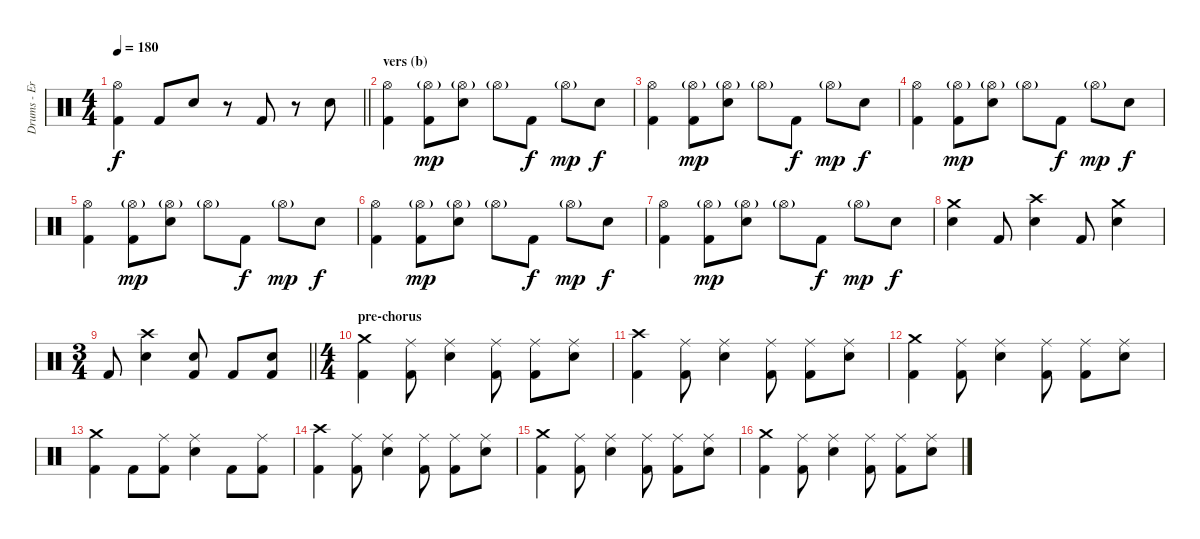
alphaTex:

\track ("Drums - Eric Young" "Drums - Er") {instrument percussion}
\staff {score}
\articulation defaults
\ts (4 4)
\tempo 180
\clef neutral
\barLineRight lightlight
\ks c
("Hi-Hat (open)" "Kick (hit) 2").4{dy f} "Kick (hit) 2".8 "Electric Snare (hit)".8 r.8 "Kick (hit) 2".8 r.8 "Electric Snare (hit)".8 |
\section ("" "vers (b)")
("Hi-Hat (open)" "Kick (hit) 2").4 ("Hi-Hat (open)"{g} "Kick (hit) 2").8{dy mp} ("Hi-Hat (open)"{g} "Electric Snare (hit)").8 "Hi-Hat (open)"{g}.8 "Kick (hit) 2".8{dy f} "Hi-Hat (open)"{g}.8{dy mp} "Electric Snare (hit)".8{dy f} |
("Hi-Hat (open)" "Kick (hit) 2").4 ("Hi-Hat (open)"{g} "Kick (hit) 2").8{dy mp} ("Hi-Hat (open)"{g} "Electric Snare (hit)").8 "Hi-Hat (open)"{g}.8 "Kick (hit) 2".8{dy f} "Hi-Hat (open)"{g}.8{dy mp} "Electric Snare (hit)".8{dy f} |
("Hi-Hat (open)" "Kick (hit) 2").4 ("Hi-Hat (open)"{g} "Kick (hit) 2").8{dy mp} ("Hi-Hat (open)"{g} "Electric Snare (hit)").8 "Hi-Hat (open)"{g}.8 "Kick (hit) 2".8{dy f} "Hi-Hat (open)"{g}.8{dy mp} "Electric Snare (hit)".8{dy f} |
("Hi-Hat (open)" "Kick (hit) 2").4 ("Hi-Hat (open)"{g} "Kick (hit) 2").8{dy mp} ("Hi-Hat (open)"{g} "Electric Snare (hit)").8 "Hi-Hat (open)"{g}.8 "Kick (hit) 2".8{dy f} "Hi-Hat (open)"{g}.8{dy mp} "Electric Snare (hit)".8{dy f} |
("Hi-Hat (open)" "Kick (hit) 2").4 ("Hi-Hat (open)"{g} "Kick (hit) 2").8{dy mp} ("Hi-Hat (open)"{g} "Electric Snare (hit)").8 "Hi-Hat (open)"{g}.8 "Kick (hit) 2".8{dy f} "Hi-Hat (open)"{g}.8{dy mp} "Electric Snare (hit)".8{dy f} |
("Hi-Hat (open)" "Kick (hit) 2").4 ("Hi-Hat (open)"{g} "Kick (hit) 2").8{dy mp} ("Hi-Hat (open)"{g} "Electric Snare (hit)").8 "Hi-Hat (open)"{g}.8 "Kick (hit) 2".8{dy f} "Hi-Hat (open)"{g}.8{dy mp} "Electric Snare (hit)".8{dy f} |
("Crash medium (hit)" "Electric Snare (hit)").4 "Kick (hit) 2".8 ("Crash high (hit)" "Electric Snare (hit)").4 "Kick (hit) 2".8 ("Crash medium (hit)" "Electric Snare (hit)").4 |
\ts (3 4)
\barLineRight lightlight "Kick (hit) 2".8
("Crash high (hit)" "Electric Snare (hit)").4 ("Electric Snare (hit)" "Kick (hit) 2").8 "Kick (hit) 2".8 ("Electric Snare (hit)" "Kick (hit) 2").8 |
\ts (4 4)
\section ("" "pre-chorus")
("Crash medium (hit)" "Kick (hit) 2").4 ("Ride (middle)" "Kick (hit) 2").8 ("Ride (middle)" "Electric Snare (hit)").4 ("Ride (middle)" "Kick (hit) 2").8 ("Ride (middle)" "Kick (hit) 2").8 ("Ride (middle)" "Electric Snare (hit)").8 |
("Crash high (hit)" "Kick (hit) 2").4 ("Ride (middle)" "Kick (hit) 2").8 ("Ride (middle)" "Electric Snare (hit)").4 ("Ride (middle)" "Kick (hit) 2").8 ("Ride (middle)" "Kick (hit) 2").8 ("Ride (middle)" "Electric Snare (hit)").8 |
("Crash medium (hit)" "Kick (hit) 2").4 ("Ride (middle)" "Kick (hit) 2").8 ("Ride (middle)" "Electric Snare (hit)").4 ("Ride (middle)" "Kick (hit) 2").8 ("Ride (middle)" "Kick (hit) 2").8 ("Ride (middle)" "Electric Snare (hit)").8 |
("Crash medium (hit)" "Kick (hit) 2").4 "Kick (hit) 2".8 ("Ride (middle)" "Kick (hit) 2").8 ("Ride (middle)" "Electric Snare (hit)").4 "Kick (hit) 2".8 ("Ride (middle)" "Kick (hit) 2").8 |
("Crash high (hit)" "Kick (hit) 2").4 ("Ride (middle)" "Kick (hit) 2").8 ("Ride (middle)" "Electric Snare (hit)").4 ("Ride (middle)" "Kick (hit) 2").8 ("Ride (middle)" "Kick (hit) 2").8 ("Ride (middle)" "Electric Snare (hit)").8 |
("Crash medium (hit)" "Kick (hit) 2").4 ("Ride (middle)" "Kick (hit) 2").8 ("Ride (middle)" "Electric Snare (hit)").4 ("Ride (middle)" "Kick (hit) 2").8 ("Ride (middle)" "Kick (hit) 2").8 ("Ride (middle)" "Electric Snare (hit)").8 |
("Crash medium (hit)" "Kick (hit) 2").4 ("Ride (middle)" "Kick (hit) 2").8 ("Ride (middle)" "Electric Snare (hit)").4 ("Ride (middle)" "Kick (hit) 2").8 ("Ride (middle)" "Kick (hit) 2").8 ("Ride (middle)" "Electric Snare (hit)").8
